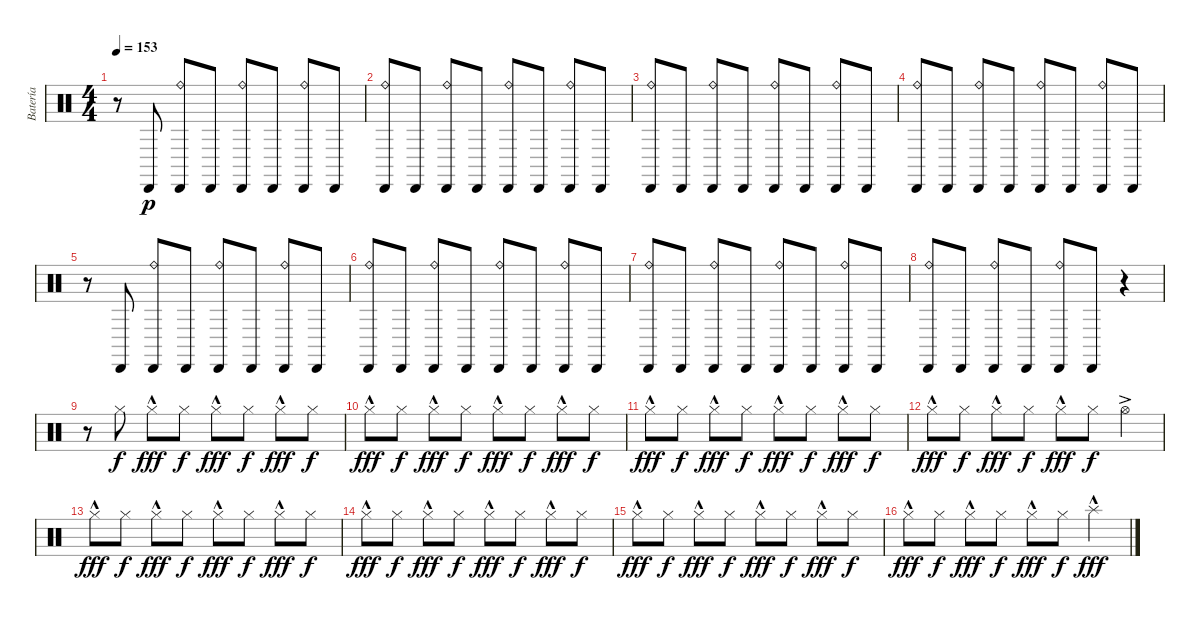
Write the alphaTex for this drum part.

\track ("Batería" "Batería") {instrument percussion}
\staff {score}
\articulation defaults
\ts (4 4)
\tempo 153
\clef neutral
\ks c
r.8{dy p} "Cabasa (hit)".8 ("Cabasa (hit)" "Ride (bell)").8 "Cabasa (hit)".8 ("Cabasa (hit)" "Ride (bell)").8 "Cabasa (hit)".8 ("Cabasa (hit)" "Ride (bell)").8 "Cabasa (hit)".8 |
("Cabasa (hit)" "Ride (bell)").8 "Cabasa (hit)".8 ("Cabasa (hit)" "Ride (bell)").8 "Cabasa (hit)".8 ("Cabasa (hit)" "Ride (bell)").8 "Cabasa (hit)".8 ("Cabasa (hit)" "Ride (bell)").8 "Cabasa (hit)".8 |
("Cabasa (hit)" "Ride (bell)").8 "Cabasa (hit)".8 ("Cabasa (hit)" "Ride (bell)").8 "Cabasa (hit)".8 ("Cabasa (hit)" "Ride (bell)").8 "Cabasa (hit)".8 ("Cabasa (hit)" "Ride (bell)").8 "Cabasa (hit)".8 |
("Cabasa (hit)" "Ride (bell)").8 "Cabasa (hit)".8 ("Cabasa (hit)" "Ride (bell)").8 "Cabasa (hit)".8 ("Cabasa (hit)" "Ride (bell)").8 "Cabasa (hit)".8 ("Cabasa (hit)" "Ride (bell)").8 "Cabasa (hit)".8 |
r.8 "Cabasa (hit)".8 ("Cabasa (hit)" "Ride (bell)").8 "Cabasa (hit)".8 ("Cabasa (hit)" "Ride (bell)").8 "Cabasa (hit)".8 ("Cabasa (hit)" "Ride (bell)").8 "Cabasa (hit)".8 |
("Cabasa (hit)" "Ride (bell)").8 "Cabasa (hit)".8 ("Cabasa (hit)" "Ride (bell)").8 "Cabasa (hit)".8 ("Cabasa (hit)" "Ride (bell)").8 "Cabasa (hit)".8 ("Cabasa (hit)" "Ride (bell)").8 "Cabasa (hit)".8 |
("Cabasa (hit)" "Ride (bell)").8 "Cabasa (hit)".8 ("Cabasa (hit)" "Ride (bell)").8 "Cabasa (hit)".8 ("Cabasa (hit)" "Ride (bell)").8 "Cabasa (hit)".8 ("Cabasa (hit)" "Ride (bell)").8 "Cabasa (hit)".8 |
("Cabasa (hit)" "Ride (bell)").8 "Cabasa (hit)".8 ("Cabasa (hit)" "Ride (bell)").8 "Cabasa (hit)".8 ("Cabasa (hit)" "Ride (bell)").8 "Cabasa (hit)".8 r.4 |
r.8 "Hi-Hat (closed)".8{dy f} "Hi-Hat (closed)"{hac}.8{dy fff} "Hi-Hat (closed)".8{dy f} "Hi-Hat (closed)"{hac}.8{dy fff} "Hi-Hat (closed)".8{dy f} "Hi-Hat (closed)"{hac}.8{dy fff} "Hi-Hat (closed)".8{dy f} |
"Hi-Hat (closed)"{hac}.8{dy fff} "Hi-Hat (closed)".8{dy f} "Hi-Hat (closed)"{hac}.8{dy fff} "Hi-Hat (closed)".8{dy f} "Hi-Hat (closed)"{hac}.8{dy fff} "Hi-Hat (closed)".8{dy f} "Hi-Hat (closed)"{hac}.8{dy fff} "Hi-Hat (closed)".8{dy f} |
"Hi-Hat (closed)"{hac}.8{dy fff} "Hi-Hat (closed)".8{dy f} "Hi-Hat (closed)"{hac}.8{dy fff} "Hi-Hat (closed)".8{dy f} "Hi-Hat (closed)"{hac}.8{dy fff} "Hi-Hat (closed)".8{dy f} "Hi-Hat (closed)"{hac}.8{dy fff} "Hi-Hat (closed)".8{dy f} |
"Hi-Hat (closed)"{hac}.8{dy fff} "Hi-Hat (closed)".8{dy f} "Hi-Hat (closed)"{hac}.8{dy fff} "Hi-Hat (closed)".8{dy f} "Hi-Hat (closed)"{hac}.8{dy fff} "Hi-Hat (closed)".8{dy f} "Hi-Hat (open)"{ac}.4 |
"Hi-Hat (closed)"{hac}.8{dy fff} "Hi-Hat (closed)".8{dy f} "Hi-Hat (closed)"{hac}.8{dy fff} "Hi-Hat (closed)".8{dy f} "Hi-Hat (closed)"{hac}.8{dy fff} "Hi-Hat (closed)".8{dy f} "Hi-Hat (closed)"{hac}.8{dy fff} "Hi-Hat (closed)".8{dy f} |
"Hi-Hat (closed)"{hac}.8{dy fff} "Hi-Hat (closed)".8{dy f} "Hi-Hat (closed)"{hac}.8{dy fff} "Hi-Hat (closed)".8{dy f} "Hi-Hat (closed)"{hac}.8{dy fff} "Hi-Hat (closed)".8{dy f} "Hi-Hat (closed)"{hac}.8{dy fff} "Hi-Hat (closed)".8{dy f} |
"Hi-Hat (closed)"{hac}.8{dy fff} "Hi-Hat (closed)".8{dy f} "Hi-Hat (closed)"{hac}.8{dy fff} "Hi-Hat (closed)".8{dy f} "Hi-Hat (closed)"{hac}.8{dy fff} "Hi-Hat (closed)".8{dy f} "Hi-Hat (closed)"{hac}.8{dy fff} "Hi-Hat (closed)".8{dy f} |
"Hi-Hat (closed)"{hac}.8{dy fff} "Hi-Hat (closed)".8{dy f} "Hi-Hat (closed)"{hac}.8{dy fff} "Hi-Hat (closed)".8{dy f} "Hi-Hat (closed)"{hac}.8{dy fff} "Hi-Hat (closed)".8{dy f} "Splash (hit)"{hac}.4{dy fff}
